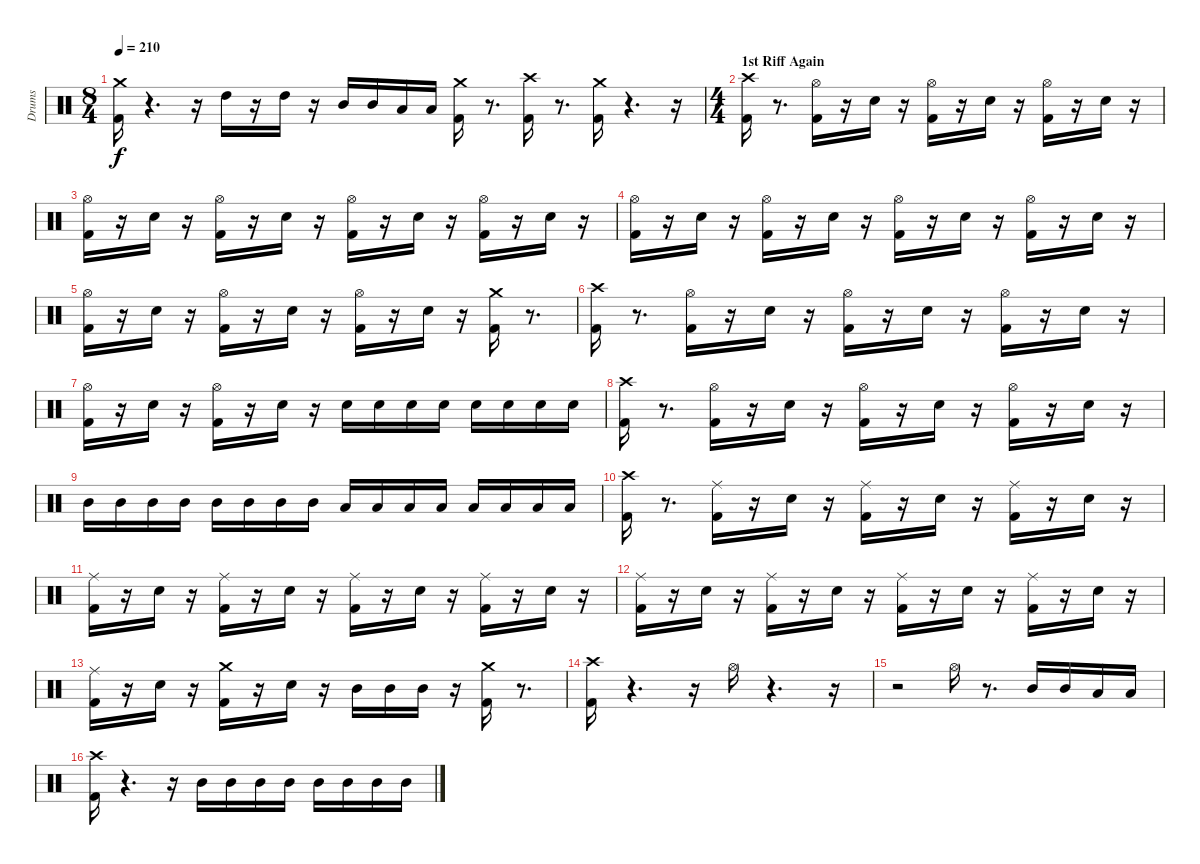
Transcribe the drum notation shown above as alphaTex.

\track ("Drums" "Drums") {instrument percussion}
\staff {score}
\articulation defaults
\ts (8 4)
\tempo 210
\clef neutral
\ks c
("Kick (hit) 2" "Crash medium (hit)").16{dy f} r.4{d} r.16 "High Tom (hit)".16 r.16 "High Tom (hit)".16 r.16 "Mid Tom (hit)".16 "Mid Tom (hit)".16 "Low Tom (hit)".16 "Low Tom (hit)".16 ("Crash medium (hit)" "Kick (hit) 2").16 r.8{d} ("Crash high (hit)" "Kick (hit) 2").16 r.8{d} ("Kick (hit) 2" "Crash medium (hit)").16 r.4{d} r.16 |
\ts (4 4)
\section ("" "1st Riff Again")
("Kick (hit) 2" "Crash high (hit)").16 r.8{d} ("Kick (hit) 2" "Hi-Hat (open)").16 r.16 "Snare (hit) 2".16 r.16 ("Hi-Hat (open)" "Kick (hit) 2").16 r.16 "Snare (hit) 2".16 r.16 ("Kick (hit) 2" "Hi-Hat (open)").16 r.16 "Snare (hit) 2".16 r.16 |
("Hi-Hat (open)" "Kick (hit) 2").16 r.16 "Snare (hit) 2".16 r.16 ("Kick (hit) 2" "Hi-Hat (open)").16 r.16 "Snare (hit) 2".16 r.16 ("Kick (hit) 2" "Hi-Hat (open)").16 r.16 "Snare (hit) 2".16 r.16 ("Kick (hit) 2" "Hi-Hat (open)").16 r.16 "Snare (hit) 2".16 r.16 |
("Hi-Hat (open)" "Kick (hit) 2").16 r.16 "Snare (hit) 2".16 r.16 ("Kick (hit) 2" "Hi-Hat (open)").16 r.16 "Snare (hit) 2".16 r.16 ("Kick (hit) 2" "Hi-Hat (open)").16 r.16 "Snare (hit) 2".16 r.16 ("Hi-Hat (open)" "Kick (hit) 2").16 r.16 "Snare (hit) 2".16 r.16 |
("Kick (hit) 2" "Hi-Hat (open)").16 r.16 "Snare (hit) 2".16 r.16 ("Hi-Hat (open)" "Kick (hit) 2").16 r.16 "Snare (hit) 2".16 r.16 ("Hi-Hat (open)" "Kick (hit) 2").16 r.16 "Snare (hit) 2".16 r.16 ("Crash medium (hit)" "Kick (hit) 2").16 r.8{d} |
("Crash high (hit)" "Kick (hit) 2").16 r.8{d} ("Hi-Hat (open)" "Kick (hit) 2").16 r.16 "Snare (hit) 2".16 r.16 ("Kick (hit) 2" "Hi-Hat (open)").16 r.16 "Snare (hit) 2".16 r.16 ("Hi-Hat (open)" "Kick (hit) 2").16 r.16 "Snare (hit) 2".16 r.16 |
("Kick (hit) 2" "Hi-Hat (open)").16 r.16 "Snare (hit) 2".16 r.16 ("Hi-Hat (open)" "Kick (hit) 2").16 r.16 "Snare (hit) 2".16 r.16 "Snare (hit) 2".16 "Snare (hit) 2".16 "Snare (hit) 2".16 "Snare (hit) 2".16 "Snare (hit) 2".16 "Snare (hit) 2".16 "Snare (hit) 2".16 "Snare (hit) 2".16 |
("Crash high (hit)" "Kick (hit) 2").16 r.8{d} ("Hi-Hat (open)" "Kick (hit) 2").16 r.16 "Snare (hit) 2".16 r.16 ("Hi-Hat (open)" "Kick (hit) 2").16 r.16 "Snare (hit) 2".16 r.16 ("Hi-Hat (open)" "Kick (hit) 2").16 r.16 "Snare (hit) 2".16 r.16 |
"Mid Tom (hit)".16 "Mid Tom (hit)".16 "Mid Tom (hit)".16 "Mid Tom (hit)".16 "Mid Tom (hit)".16 "Mid Tom (hit)".16 "Mid Tom (hit)".16 "Mid Tom (hit)".16 "Low Tom (hit)".16 "Low Tom (hit)".16 "Low Tom (hit)".16 "Low Tom (hit)".16 "Low Tom (hit)".16 "Low Tom (hit)".16 "Low Tom (hit)".16 "Low Tom (hit)".16 |
("Kick (hit) 2" "Crash high (hit)").16 r.8{d} ("Kick (hit) 2" "Ride (middle)").16 r.16 "Snare (hit) 2".16 r.16 ("Ride (middle)" "Kick (hit) 2").16 r.16 "Snare (hit) 2".16 r.16 ("Kick (hit) 2" "Ride (middle)").16 r.16 "Snare (hit) 2".16 r.16 |
("Ride (middle)" "Kick (hit) 2").16 r.16 "Snare (hit) 2".16 r.16 ("Kick (hit) 2" "Ride (middle)").16 r.16 "Snare (hit) 2".16 r.16 ("Kick (hit) 2" "Ride (middle)").16 r.16 "Snare (hit) 2".16 r.16 ("Kick (hit) 2" "Ride (middle)").16 r.16 "Snare (hit) 2".16 r.16 |
("Ride (middle)" "Kick (hit) 2").16 r.16 "Snare (hit) 2".16 r.16 ("Ride (middle)" "Kick (hit) 2").16 r.16 "Snare (hit) 2".16 r.16 ("Ride (middle)" "Kick (hit) 2").16 r.16 "Snare (hit) 2".16 r.16 ("Kick (hit) 2" "Ride (middle)").16 r.16 "Snare (hit) 2".16 r.16 |
("Ride (middle)" "Kick (hit) 2").16 r.16 "Snare (hit) 2".16 r.16 ("Kick (hit) 2" "Crash medium (hit)").16 r.16 "Snare (hit) 2".16 r.16 "Mid Tom (hit)".16 "Mid Tom (hit)".16 "Mid Tom (hit)".16 r.16 ("Crash medium (hit)" "Kick (hit) 2").16 r.8{d} |
("Crash high (hit)" "Kick (hit) 2").16 r.4{d} r.16 "Hi-Hat (open)".16 r.4{d} r.16 |
r.2 "Hi-Hat (open)".16 r.8{d} "Mid Tom (hit)".16 "Mid Tom (hit)".16 "Low Tom (hit)".16 "Low Tom (hit)".16 |
("Crash high (hit)" "Kick (hit) 2").16 r.4{d} r.16 "Mid Tom (hit)".16 "Mid Tom (hit)".16 "Mid Tom (hit)".16 "Mid Tom (hit)".16 "Mid Tom (hit)".16 "Mid Tom (hit)".16 "Mid Tom (hit)".16 "Mid Tom (hit)".16
